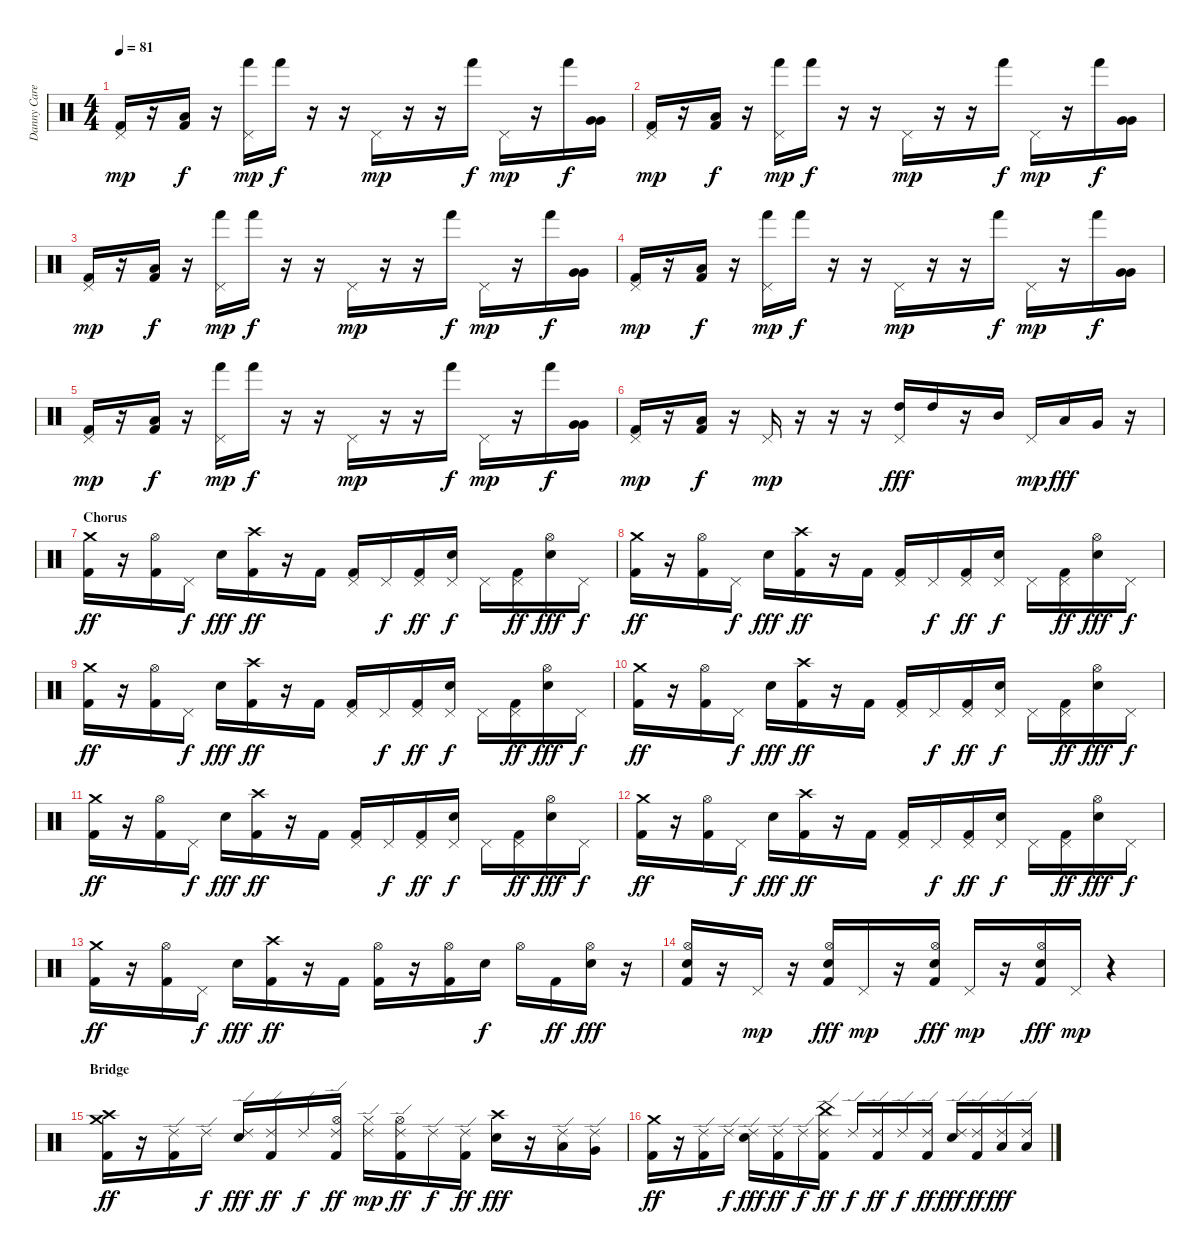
\track ("Danny Carey" "Danny Care") {instrument percussion}
\staff {score}
\articulation defaults
\ts (4 4)
\tempo 81
\clef neutral
\ks c
("Pedal Hi-Hat (hit)" "Kick (hit) 2").16{dy mp} r.16 ("Low Floor Tom (hit)" "Kick (hit) 2").16{dy f} r.16 ("Pedal Hi-Hat (hit)" "Hand (hit)").16{dy mp} "Hand (hit)".16{dy f} r.16 r.16 "Pedal Hi-Hat (hit)".16{dy mp} r.16 r.16 "Hand (hit)".16{dy f} "Pedal Hi-Hat (hit)".16{dy mp} r.16 "Hand (hit)".16{dy f} ("Very Low Tom (hit)" "Very Low Tom (hit)").16 |
("Pedal Hi-Hat (hit)" "Kick (hit) 2").16{dy mp} r.16 ("Low Floor Tom (hit)" "Kick (hit) 2").16{dy f} r.16 ("Pedal Hi-Hat (hit)" "Hand (hit)").16{dy mp} "Hand (hit)".16{dy f} r.16 r.16 "Pedal Hi-Hat (hit)".16{dy mp} r.16 r.16 "Hand (hit)".16{dy f} "Pedal Hi-Hat (hit)".16{dy mp} r.16 "Hand (hit)".16{dy f} ("Very Low Tom (hit)" "Very Low Tom (hit)").16 |
("Pedal Hi-Hat (hit)" "Kick (hit) 2").16{dy mp} r.16 ("Low Floor Tom (hit)" "Kick (hit) 2").16{dy f} r.16 ("Pedal Hi-Hat (hit)" "Hand (hit)").16{dy mp} "Hand (hit)".16{dy f} r.16 r.16 "Pedal Hi-Hat (hit)".16{dy mp} r.16 r.16 "Hand (hit)".16{dy f} "Pedal Hi-Hat (hit)".16{dy mp} r.16 "Hand (hit)".16{dy f} ("Very Low Tom (hit)" "Very Low Tom (hit)").16 |
("Pedal Hi-Hat (hit)" "Kick (hit) 2").16{dy mp} r.16 ("Low Floor Tom (hit)" "Kick (hit) 2").16{dy f} r.16 ("Pedal Hi-Hat (hit)" "Hand (hit)").16{dy mp} "Hand (hit)".16{dy f} r.16 r.16 "Pedal Hi-Hat (hit)".16{dy mp} r.16 r.16 "Hand (hit)".16{dy f} "Pedal Hi-Hat (hit)".16{dy mp} r.16 "Hand (hit)".16{dy f} ("Very Low Tom (hit)" "Very Low Tom (hit)").16 |
("Pedal Hi-Hat (hit)" "Kick (hit) 2").16{dy mp} r.16 ("Low Floor Tom (hit)" "Kick (hit) 2").16{dy f} r.16 ("Pedal Hi-Hat (hit)" "Hand (hit)").16{dy mp} "Hand (hit)".16{dy f} r.16 r.16 "Pedal Hi-Hat (hit)".16{dy mp} r.16 r.16 "Hand (hit)".16{dy f} "Pedal Hi-Hat (hit)".16{dy mp} r.16 "Hand (hit)".16{dy f} ("Very Low Tom (hit)" "Very Low Tom (hit)").16 |
("Pedal Hi-Hat (hit)" "Kick (hit) 2").16{dy mp} r.16 ("Low Floor Tom (hit)" "Kick (hit) 2").16{dy f} r.16 "Pedal Hi-Hat (hit)".16{dy mp} r.16 r.16 r.16 ("Pedal Hi-Hat (hit)" "High Tom (hit)").16{dy fff} "High Tom (hit)".16 r.16 "Mid Tom (hit)".16 "Pedal Hi-Hat (hit)".16{dy mp} "Low Tom (hit)".16{dy fff} "Very Low Tom (hit)".16 r.16 |
\section ("" "Chorus")
("Crash medium (hit)" "Kick (hit) 2").16{dy ff} r.16 ("Hi-Hat (open)" "Kick (hit) 2").16 "Pedal Hi-Hat (hit)".16{dy f} "Electric Snare (hit)".16{dy fff} ("Crash high (hit)" "Kick (hit) 2").16{dy ff} r.16 "Kick (hit) 2".16 ("Pedal Hi-Hat (hit)" "Kick (hit) 2").16 "Pedal Hi-Hat (hit)".16{dy f} ("Pedal Hi-Hat (hit)" "Kick (hit) 2").16{dy ff} ("Pedal Hi-Hat (hit)" "Electric Snare (hit)").16{dy f} "Pedal Hi-Hat (hit)".16 ("Pedal Hi-Hat (hit)" "Kick (hit) 2").16{dy ff} ("Hi-Hat (open)" "Electric Snare (hit)").16{dy fff} "Pedal Hi-Hat (hit)".16{dy f} |
("Crash medium (hit)" "Kick (hit) 2").16{dy ff} r.16 ("Hi-Hat (open)" "Kick (hit) 2").16 "Pedal Hi-Hat (hit)".16{dy f} "Electric Snare (hit)".16{dy fff} ("Crash high (hit)" "Kick (hit) 2").16{dy ff} r.16 "Kick (hit) 2".16 ("Pedal Hi-Hat (hit)" "Kick (hit) 2").16 "Pedal Hi-Hat (hit)".16{dy f} ("Pedal Hi-Hat (hit)" "Kick (hit) 2").16{dy ff} ("Pedal Hi-Hat (hit)" "Electric Snare (hit)").16{dy f} "Pedal Hi-Hat (hit)".16 ("Pedal Hi-Hat (hit)" "Kick (hit) 2").16{dy ff} ("Hi-Hat (open)" "Electric Snare (hit)").16{dy fff} "Pedal Hi-Hat (hit)".16{dy f} |
("Crash medium (hit)" "Kick (hit) 2").16{dy ff} r.16 ("Hi-Hat (open)" "Kick (hit) 2").16 "Pedal Hi-Hat (hit)".16{dy f} "Electric Snare (hit)".16{dy fff} ("Crash high (hit)" "Kick (hit) 2").16{dy ff} r.16 "Kick (hit) 2".16 ("Pedal Hi-Hat (hit)" "Kick (hit) 2").16 "Pedal Hi-Hat (hit)".16{dy f} ("Pedal Hi-Hat (hit)" "Kick (hit) 2").16{dy ff} ("Pedal Hi-Hat (hit)" "Electric Snare (hit)").16{dy f} "Pedal Hi-Hat (hit)".16 ("Pedal Hi-Hat (hit)" "Kick (hit) 2").16{dy ff} ("Hi-Hat (open)" "Electric Snare (hit)").16{dy fff} "Pedal Hi-Hat (hit)".16{dy f} |
("Crash medium (hit)" "Kick (hit) 2").16{dy ff} r.16 ("Hi-Hat (open)" "Kick (hit) 2").16 "Pedal Hi-Hat (hit)".16{dy f} "Electric Snare (hit)".16{dy fff} ("Crash high (hit)" "Kick (hit) 2").16{dy ff} r.16 "Kick (hit) 2".16 ("Pedal Hi-Hat (hit)" "Kick (hit) 2").16 "Pedal Hi-Hat (hit)".16{dy f} ("Pedal Hi-Hat (hit)" "Kick (hit) 2").16{dy ff} ("Pedal Hi-Hat (hit)" "Electric Snare (hit)").16{dy f} "Pedal Hi-Hat (hit)".16 ("Pedal Hi-Hat (hit)" "Kick (hit) 2").16{dy ff} ("Hi-Hat (open)" "Electric Snare (hit)").16{dy fff} "Pedal Hi-Hat (hit)".16{dy f} |
("Crash medium (hit)" "Kick (hit) 2").16{dy ff} r.16 ("Hi-Hat (open)" "Kick (hit) 2").16 "Pedal Hi-Hat (hit)".16{dy f} "Electric Snare (hit)".16{dy fff} ("Crash high (hit)" "Kick (hit) 2").16{dy ff} r.16 "Kick (hit) 2".16 ("Pedal Hi-Hat (hit)" "Kick (hit) 2").16 "Pedal Hi-Hat (hit)".16{dy f} ("Pedal Hi-Hat (hit)" "Kick (hit) 2").16{dy ff} ("Pedal Hi-Hat (hit)" "Electric Snare (hit)").16{dy f} "Pedal Hi-Hat (hit)".16 ("Pedal Hi-Hat (hit)" "Kick (hit) 2").16{dy ff} ("Hi-Hat (open)" "Electric Snare (hit)").16{dy fff} "Pedal Hi-Hat (hit)".16{dy f} |
("Crash medium (hit)" "Kick (hit) 2").16{dy ff} r.16 ("Hi-Hat (open)" "Kick (hit) 2").16 "Pedal Hi-Hat (hit)".16{dy f} "Electric Snare (hit)".16{dy fff} ("Crash high (hit)" "Kick (hit) 2").16{dy ff} r.16 "Kick (hit) 2".16 ("Pedal Hi-Hat (hit)" "Kick (hit) 2").16 "Pedal Hi-Hat (hit)".16{dy f} ("Pedal Hi-Hat (hit)" "Kick (hit) 2").16{dy ff} ("Pedal Hi-Hat (hit)" "Electric Snare (hit)").16{dy f} "Pedal Hi-Hat (hit)".16 ("Pedal Hi-Hat (hit)" "Kick (hit) 2").16{dy ff} ("Hi-Hat (open)" "Electric Snare (hit)").16{dy fff} "Pedal Hi-Hat (hit)".16{dy f} |
("Crash medium (hit)" "Kick (hit) 2").16{dy ff} r.16 ("Hi-Hat (open)" "Kick (hit) 2").16 "Pedal Hi-Hat (hit)".16{dy f} "Electric Snare (hit)".16{dy fff} ("Crash high (hit)" "Kick (hit) 2").16{dy ff} r.16 "Kick (hit) 2".16 ("Hi-Hat (open)" "Kick (hit) 2").16 r.16 ("Hi-Hat (open)" "Kick (hit) 2").16 "Electric Snare (hit)".16{dy f} "Hi-Hat (open)".16 "Kick (hit) 2".16{dy ff} ("Hi-Hat (open)" "Electric Snare (hit)").16{dy fff} r.16 |
("Hi-Hat (open)" "Electric Snare (hit)" "Kick (hit) 2").16 r.16 "Pedal Hi-Hat (hit)".16{dy mp} r.16 ("Hi-Hat (open)" "Electric Snare (hit)" "Kick (hit) 2").16{dy fff} "Pedal Hi-Hat (hit)".16{dy mp} r.16 ("Hi-Hat (open)" "Electric Snare (hit)" "Kick (hit) 2").16{dy fff} "Pedal Hi-Hat (hit)".16{dy mp} r.16 ("Hi-Hat (open)" "Electric Snare (hit)" "Kick (hit) 2").16{dy fff} "Pedal Hi-Hat (hit)".16{dy mp} r.4 |
\section ("" "Bridge")
("Crash medium (hit)" "Crash high (hit)" "Kick (hit) 2").16{dy ff} r.16 ("Ride (edge) 2" "Kick (hit) 2").16 "Ride (edge) 2".16{dy f} ("Ride (edge) 2" "Electric Snare (hit)").16{dy fff} ("Ride (edge) 2" "Kick (hit) 2").16{dy ff} "Ride (edge) 2".16{dy f} ("Ride (edge) 2" "Hi-Hat (open)" "Kick (hit) 2").16{dy ff} ("Ride (edge) 2" "Hi-Hat (closed)").16{dy mp} ("Ride (edge) 2" "Hi-Hat (open)" "Kick (hit) 2").16{dy ff} "Ride (edge) 2".16{dy f} ("Ride (edge) 2" "Kick (hit) 2").16{dy ff} ("Crash high (hit)" "Electric Snare (hit)").16{dy fff} r.16 ("Ride (edge) 2" "Low Tom (hit)").16 ("Ride (edge) 2" "Very Low Tom (hit)").16 |
("Crash medium (hit)" "Kick (hit) 2").16{dy ff} r.16 ("Ride (edge) 2" "Kick (hit) 2").16 "Ride (edge) 2".16{dy f} ("Ride (edge) 2" "Electric Snare (hit)").16{dy fff} ("Ride (edge) 2" "Kick (hit) 2").16{dy ff} "Ride (edge) 2".16{dy f} ("Ride (edge) 2" "China (hit)" "Kick (hit) 2").16{dy ff} "Ride (edge) 2".16{dy f} ("Ride (edge) 2" "Kick (hit) 2").16{dy ff} "Ride (edge) 2".16{dy f} ("Ride (edge) 2" "Kick (hit) 2").16{dy ff} ("Ride (edge) 2" "Electric Snare (hit)").16{dy fff} ("Ride (edge) 2" "Kick (hit) 2").16{dy ff} ("Ride (edge) 2" "Low Tom (hit)").16{dy fff} ("Ride (edge) 2" "Low Tom (hit)").16
